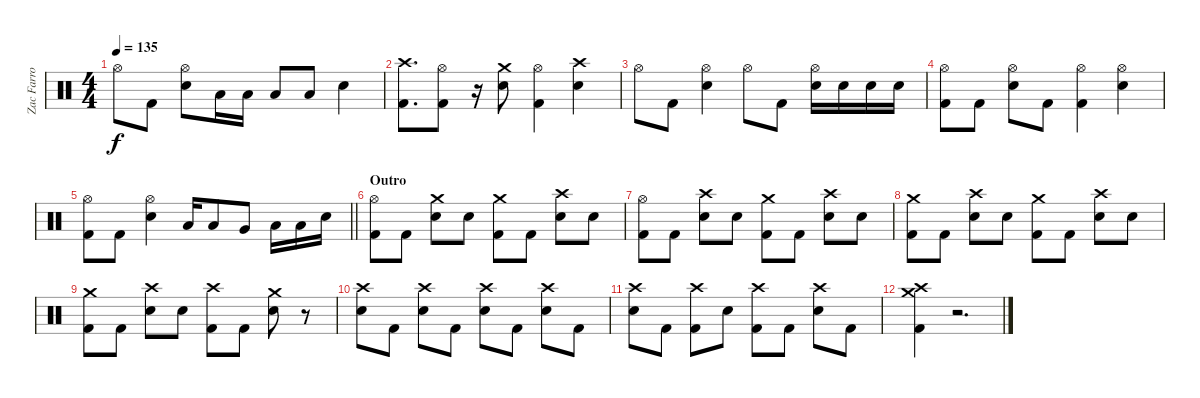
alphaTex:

\track ("Zac Farro" "Zac Farro") {instrument percussion}
\staff {score}
\articulation defaults
\ts (4 4)
\tempo 135
\clef neutral
\ks c "Hi-Hat (open)".8{dy f} "Kick (hit) 2".8
("Hi-Hat (open)" "Electric Snare (hit)").8 "Low Tom (hit)".16 "Low Tom (hit)".16 "Low Tom (hit)".8 "Low Floor Tom (hit)".8 "Electric Snare (hit)".4 |
("Crash high (hit)" "Kick (hit) 2").8{d} ("Hi-Hat (open)" "Kick (hit) 2").8 r.16 ("Crash medium (hit)" "Electric Snare (hit)").8 ("Hi-Hat (open)" "Kick (hit) 2").4 ("Crash high (hit)" "Electric Snare (hit)").4 |
"Hi-Hat (open)".8 "Kick (hit) 2".8 ("Hi-Hat (open)" "Electric Snare (hit)").4 "Hi-Hat (open)".8 "Kick (hit) 2".8 ("Hi-Hat (open)" "Electric Snare (hit)").16 "Electric Snare (hit)".16 "Electric Snare (hit)".16 "Electric Snare (hit)".16 |
("Hi-Hat (open)" "Kick (hit) 2").8 "Kick (hit) 2".8 ("Hi-Hat (open)" "Electric Snare (hit)").8 "Kick (hit) 2".8 ("Hi-Hat (open)" "Kick (hit) 2").4 ("Hi-Hat (open)" "Electric Snare (hit)").4 |
\barLineRight lightlight
("Hi-Hat (open)" "Kick (hit) 2").8 "Kick (hit) 2".8 ("Hi-Hat (open)" "Electric Snare (hit)").4 "Low Tom (hit)".16 "Low Tom (hit)".8 "Very Low Tom (hit)".8 "Low Floor Tom (hit)".16 "Low Floor Tom (hit)".16 "Electric Snare (hit)".16 |
\section ("" "Outro")
("Hi-Hat (open)" "Kick (hit) 2").8 "Kick (hit) 2".8 ("Crash medium (hit)" "Electric Snare (hit)").8 "Electric Snare (hit)".8 ("Crash medium (hit)" "Kick (hit) 2").8 "Kick (hit) 2".8 ("Crash high (hit)" "Electric Snare (hit)").8 "Electric Snare (hit)".8 |
("Hi-Hat (open)" "Kick (hit) 2").8 "Kick (hit) 2".8 ("Crash high (hit)" "Electric Snare (hit)").8 "Electric Snare (hit)".8 ("Crash medium (hit)" "Kick (hit) 2").8 "Kick (hit) 2".8 ("Crash high (hit)" "Electric Snare (hit)").8 "Electric Snare (hit)".8 |
("Crash medium (hit)" "Kick (hit) 2").8 "Kick (hit) 2".8 ("Crash high (hit)" "Electric Snare (hit)").8 "Electric Snare (hit)".8 ("Crash medium (hit)" "Kick (hit) 2").8 "Kick (hit) 2".8 ("Crash high (hit)" "Electric Snare (hit)").8 "Electric Snare (hit)".8 |
("Crash medium (hit)" "Kick (hit) 2").8 "Kick (hit) 2".8 ("Crash high (hit)" "Electric Snare (hit)").8 "Electric Snare (hit)".8 ("Crash high (hit)" "Kick (hit) 2").8 "Kick (hit) 2".8 ("Crash medium (hit)" "Electric Snare (hit)").8 r.8 |
("Crash high (hit)" "Electric Snare (hit)").8 "Kick (hit) 2".8 ("Crash high (hit)" "Electric Snare (hit)").8 "Kick (hit) 2".8 ("Crash high (hit)" "Electric Snare (hit)").8 "Kick (hit) 2".8 ("Crash high (hit)" "Electric Snare (hit)").8 "Kick (hit) 2".8 |
("Crash high (hit)" "Electric Snare (hit)").8 "Kick (hit) 2".8 ("Crash high (hit)" "Kick (hit) 2").8 "Electric Snare (hit)".8 ("Crash high (hit)" "Kick (hit) 2").8 "Kick (hit) 2".8 ("Crash high (hit)" "Electric Snare (hit)").8 "Kick (hit) 2".8 |
("Crash high (hit)" "Crash medium (hit)" "Kick (hit) 2").4 r.2{d}
